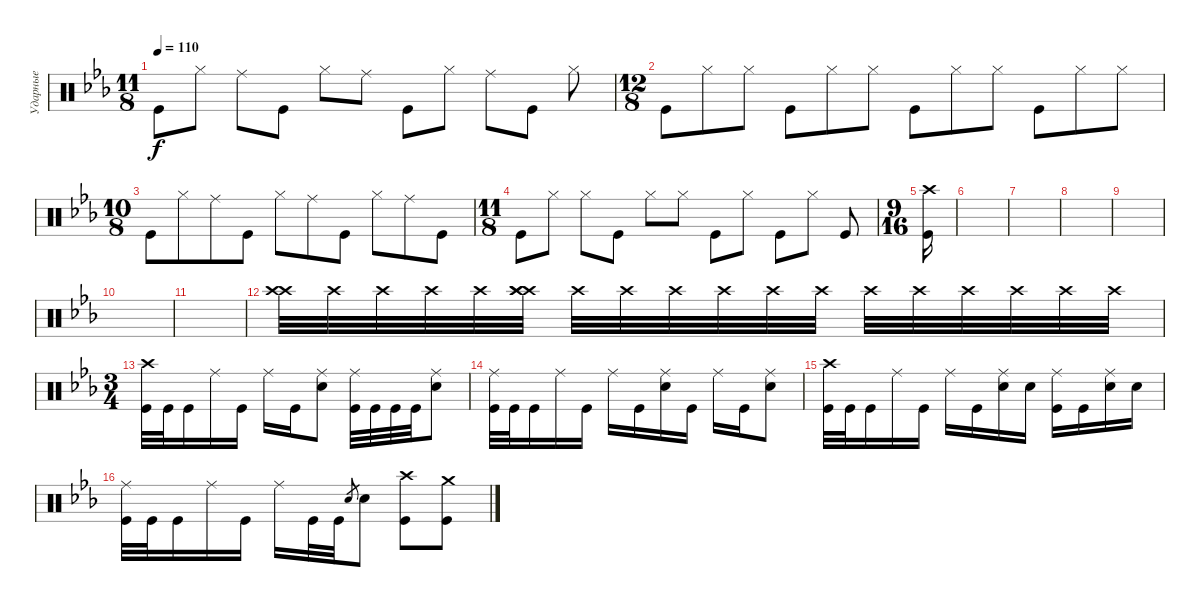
\track ("Ударные" "Ударные") {instrument percussion}
\staff {score}
\articulation defaults
\ts (11 8)
\tempo 110
\clef neutral
\ks cminor "Kick (hit)".8{dy f} "Hi-Hat (closed)".8 "Ride (middle)".8 "Kick (hit)".8 "Hi-Hat (closed)".8 "Ride (middle)".8 "Kick (hit)".8 "Hi-Hat (closed)".8 "Ride (middle)".8 "Kick (hit)".8 "Hi-Hat (closed)".8
|
\ts (12 8)
"Kick (hit)".8 "Hi-Hat (closed)".8 "Hi-Hat (closed)".8 "Kick (hit)".8 "Hi-Hat (closed)".8 "Hi-Hat (closed)".8 "Kick (hit)".8 "Hi-Hat (closed)".8 "Hi-Hat (closed)".8 "Kick (hit)".8 "Hi-Hat (closed)".8 "Hi-Hat (closed)".8 |
\ts (10 8)
"Kick (hit)".8 "Hi-Hat (closed)".8 "Ride (middle)".8 "Kick (hit)".8 "Hi-Hat (closed)".8 "Ride (middle)".8 "Kick (hit)".8 "Hi-Hat (closed)".8 "Ride (middle)".8 "Kick (hit)".8 |
\ts (11 8)
"Kick (hit)".8 "Hi-Hat (closed)".8 "Hi-Hat (closed)".8 "Kick (hit)".8 "Hi-Hat (closed)".8 "Hi-Hat (closed)".8 "Kick (hit)".8 "Hi-Hat (closed)".8 "Kick (hit)".8 "Hi-Hat (closed)".8 "Kick (hit)".8 |
\ts (9 16)
("Kick (hit)" "Crash high (hit)").16 |
|
|
|
|
|
|
("Crash high (hit)" "Crash high (hit)").32{volume 0} "Crash high (hit)".32 "Crash high (hit)".32{volume 13} "Crash high (hit)".32 "Crash high (hit)".32 ("Crash high (hit)" "Crash high (hit)" "Crash high (hit)").32 "Crash high (hit)".32 "Crash high (hit)".32 "Crash high (hit)".32 "Crash high (hit)".32 "Crash high (hit)".32 "Crash high (hit)".32 "Crash high (hit)".32 "Crash high (hit)".32 "Crash high (hit)".32 "Crash high (hit)".32 "Crash high (hit)".32 "Crash high (hit)".32 |
\ts (3 4)
("Kick (hit)" "Crash high (hit)").32 "Kick (hit)".32 "Kick (hit)".16 "Ride (middle)".16 "Kick (hit)".16 "Ride (middle)".16 "Kick (hit)".16 ("Snare (hit) 2" "Ride (middle)").8 ("Ride (middle)" "Kick (hit)").32 "Kick (hit)".32 "Kick (hit)".32 "Kick (hit)".32 ("Ride (middle)" "Snare (hit) 2").8 |
("Kick (hit)" "Ride (middle)").32 "Kick (hit)".32 "Kick (hit)".16 "Ride (middle)".16 "Kick (hit)".16 "Ride (middle)".16 "Kick (hit)".16 ("Snare (hit) 2" "Ride (middle)").16 "Kick (hit)".16 "Ride (middle)".16 "Kick (hit)".16 ("Snare (hit) 2" "Ride (middle)").8 |
("Kick (hit)" "Crash high (hit)").32 "Kick (hit)".32 "Kick (hit)".16 "Ride (middle)".16 "Kick (hit)".16 "Ride (middle)".16 "Kick (hit)".16 ("Snare (hit) 2" "Ride (middle)").16 "Snare (hit) 2".16 ("Kick (hit)" "Ride (middle)").16 "Kick (hit)".16 ("Snare (hit) 2" "Ride (middle)").16 "Snare (hit) 2".16 |
("Kick (hit)" "Ride (middle)").32 "Kick (hit)".32 "Kick (hit)".16 "Ride (middle)".16 "Kick (hit)".16 "Ride (middle)".16 "Kick (hit)".32 "Kick (hit)".32 "Snare (hit) 2".8{gr} "Snare (hit) 2".8 ("Kick (hit)" "Crash high (hit)").8 ("Kick (hit)" "Crash medium (hit)").8
